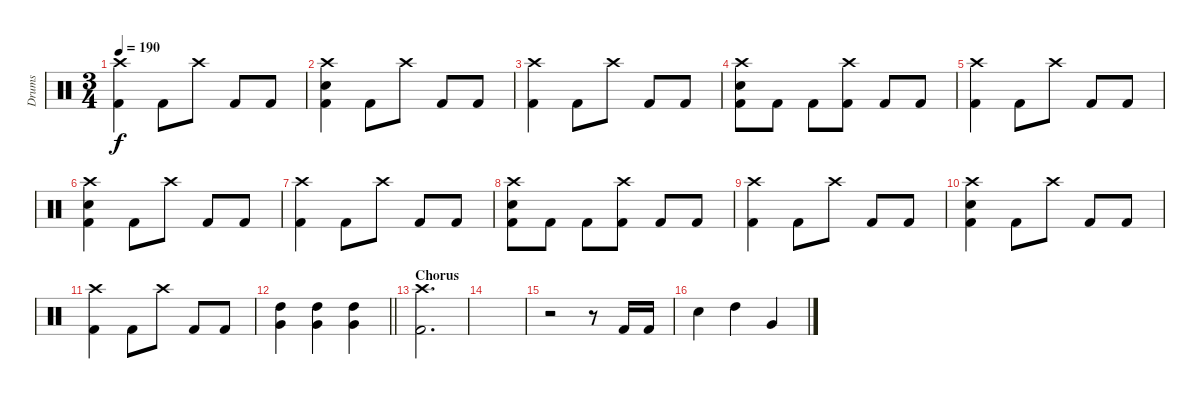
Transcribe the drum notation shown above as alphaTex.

\track ("Drums" "Drums") {instrument percussion}
\staff {score}
\articulation defaults
\ts (3 4)
\tempo 190
\clef neutral
\ks c
("Crash high (hit)" "Kick (hit) 2").4{dy f} "Kick (hit) 2".8 "Crash high (hit)".8 "Kick (hit) 2".8 "Kick (hit) 2".8 |
("Crash high (hit)" "Snare (hit) 2" "Kick (hit) 2").4 "Kick (hit) 2".8 "Crash high (hit)".8 "Kick (hit) 2".8 "Kick (hit) 2".8 |
("Crash high (hit)" "Kick (hit) 2").4 "Kick (hit) 2".8 "Crash high (hit)".8 "Kick (hit) 2".8 "Kick (hit) 2".8 |
("Crash high (hit)" "Snare (hit) 2" "Kick (hit) 2").8 "Kick (hit) 2".8 "Kick (hit) 2".8 ("Crash high (hit)" "Kick (hit) 2").8 "Kick (hit) 2".8 "Kick (hit) 2".8 |
("Crash high (hit)" "Kick (hit) 2").4 "Kick (hit) 2".8 "Crash high (hit)".8 "Kick (hit) 2".8 "Kick (hit) 2".8 |
("Crash high (hit)" "Snare (hit) 2" "Kick (hit) 2").4 "Kick (hit) 2".8 "Crash high (hit)".8 "Kick (hit) 2".8 "Kick (hit) 2".8 |
("Crash high (hit)" "Kick (hit) 2").4 "Kick (hit) 2".8 "Crash high (hit)".8 "Kick (hit) 2".8 "Kick (hit) 2".8 |
("Crash high (hit)" "Snare (hit) 2" "Kick (hit) 2").8 "Kick (hit) 2".8 "Kick (hit) 2".8 ("Crash high (hit)" "Kick (hit) 2").8 "Kick (hit) 2".8 "Kick (hit) 2".8 |
("Crash high (hit)" "Kick (hit) 2").4 "Kick (hit) 2".8 "Crash high (hit)".8 "Kick (hit) 2".8 "Kick (hit) 2".8 |
("Crash high (hit)" "Snare (hit) 2" "Kick (hit) 2").4 "Kick (hit) 2".8 "Crash high (hit)".8 "Kick (hit) 2".8 "Kick (hit) 2".8 |
("Crash high (hit)" "Kick (hit) 2").4 "Kick (hit) 2".8 "Crash high (hit)".8 "Kick (hit) 2".8 "Kick (hit) 2".8 |
\barLineRight lightlight
("High Tom (hit)" "Very Low Tom (hit)").4 ("High Tom (hit)" "Very Low Tom (hit)").4 ("High Tom (hit)" "Very Low Tom (hit)").4 |
\section ("" "Chorus")
("Crash high (hit)" "Kick (hit) 2").2{d} |
|
r.2 r.8 "Kick (hit) 2".16 "Kick (hit) 2".16 |
"Snare (hit) 2".4 "High Tom (hit)".4 "Very Low Tom (hit)".4
